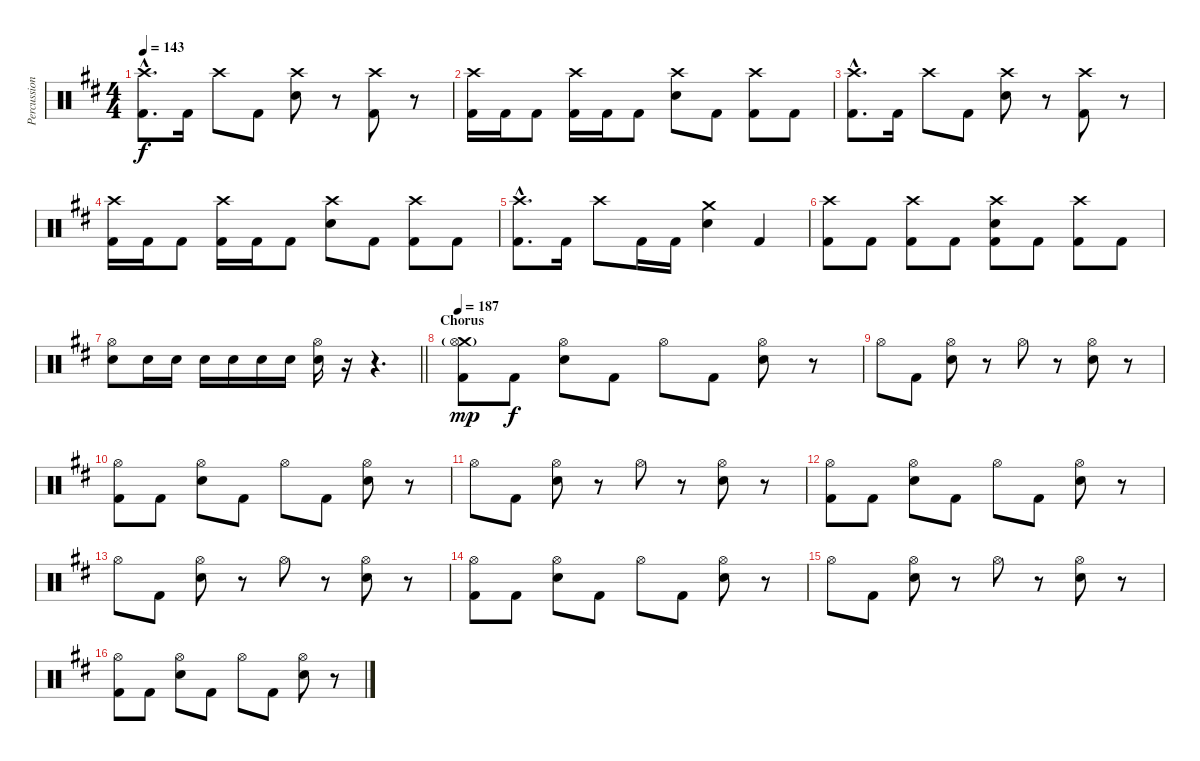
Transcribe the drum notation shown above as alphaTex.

\track ("Percussion" "Percussion") {instrument percussion}
\staff {score}
\articulation defaults
\ts (4 4)
\tempo 143
\clef neutral
\ks d
("Crash high (hit)"{hac} "Kick (hit) 2"{hac}).8{d dy f} "Kick (hit) 2".16 "Crash high (hit)".8 "Kick (hit) 2".8 ("Crash high (hit)" "Snare (hit) 2").8 r.8 ("Crash high (hit)" "Kick (hit) 2").8 r.8 |
("Crash high (hit)" "Kick (hit) 2").16 "Kick (hit) 2".16 "Kick (hit) 2".8 ("Crash high (hit)" "Kick (hit) 2").16 "Kick (hit) 2".16 "Kick (hit) 2".8 ("Crash high (hit)" "Snare (hit) 2").8 "Kick (hit) 2".8 ("Crash high (hit)" "Kick (hit) 2").8 "Kick (hit) 2".8 |
("Crash high (hit)"{hac} "Kick (hit) 2"{hac}).8{d} "Kick (hit) 2".16 "Crash high (hit)".8 "Kick (hit) 2".8 ("Crash high (hit)" "Snare (hit) 2").8 r.8 ("Crash high (hit)" "Kick (hit) 2").8 r.8 |
("Crash high (hit)" "Kick (hit) 2").16 "Kick (hit) 2".16 "Kick (hit) 2".8 ("Crash high (hit)" "Kick (hit) 2").16 "Kick (hit) 2".16 "Kick (hit) 2".8 ("Crash high (hit)" "Snare (hit) 2").8 "Kick (hit) 2".8 ("Crash high (hit)" "Kick (hit) 2").8 "Kick (hit) 2".8 |
("Crash high (hit)"{hac} "Kick (hit) 2"{hac}).8{d} "Kick (hit) 2".16 "Crash high (hit)".8 "Kick (hit) 2".16 "Kick (hit) 2".16 ("Crash medium (hit)" "Snare (hit) 2").4 "Kick (hit) 2".4 |
("Crash high (hit)" "Kick (hit) 2").8 "Kick (hit) 2".8 ("Crash high (hit)" "Kick (hit) 2").8 "Kick (hit) 2".8 ("Crash high (hit)" "Snare (hit) 2" "Kick (hit) 2").8 "Kick (hit) 2".8 ("Crash high (hit)" "Kick (hit) 2").8 "Kick (hit) 2".8 |
\barLineRight lightlight
("Hi-Hat (open)" "Snare (hit) 2").8 "Snare (hit) 2".16 "Snare (hit) 2".16 "Snare (hit) 2".16 "Snare (hit) 2".16 "Snare (hit) 2".16 "Snare (hit) 2".16 ("Hi-Hat (open)" "Snare (hit) 2").16 r.16 r.4{d} |
\section ("" "Chorus")
\tempo 187
("Crash medium (hit)"{g} "Hi-Hat (open)" "Kick (hit) 2").8{dy mp} "Kick (hit) 2".8{dy f} ("Hi-Hat (open)" "Snare (hit) 2").8 "Kick (hit) 2".8 "Hi-Hat (open)".8 "Kick (hit) 2".8 ("Hi-Hat (open)" "Snare (hit) 2").8 r.8 |
"Hi-Hat (open)".8 "Kick (hit) 2".8 ("Hi-Hat (open)" "Snare (hit) 2").8 r.8 "Hi-Hat (open)".8 r.8 ("Hi-Hat (open)" "Snare (hit) 2").8 r.8 |
("Hi-Hat (open)" "Kick (hit) 2").8 "Kick (hit) 2".8 ("Hi-Hat (open)" "Snare (hit) 2").8 "Kick (hit) 2".8 "Hi-Hat (open)".8 "Kick (hit) 2".8 ("Hi-Hat (open)" "Snare (hit) 2").8 r.8 |
"Hi-Hat (open)".8 "Kick (hit) 2".8 ("Hi-Hat (open)" "Snare (hit) 2").8 r.8 "Hi-Hat (open)".8 r.8 ("Hi-Hat (open)" "Snare (hit) 2").8 r.8 |
("Hi-Hat (open)" "Kick (hit) 2").8 "Kick (hit) 2".8 ("Hi-Hat (open)" "Snare (hit) 2").8 "Kick (hit) 2".8 "Hi-Hat (open)".8 "Kick (hit) 2".8 ("Hi-Hat (open)" "Snare (hit) 2").8 r.8 |
"Hi-Hat (open)".8 "Kick (hit) 2".8 ("Hi-Hat (open)" "Snare (hit) 2").8 r.8 "Hi-Hat (open)".8 r.8 ("Hi-Hat (open)" "Snare (hit) 2").8 r.8 |
("Hi-Hat (open)" "Kick (hit) 2").8 "Kick (hit) 2".8 ("Hi-Hat (open)" "Snare (hit) 2").8 "Kick (hit) 2".8 "Hi-Hat (open)".8 "Kick (hit) 2".8 ("Hi-Hat (open)" "Snare (hit) 2").8 r.8 |
"Hi-Hat (open)".8 "Kick (hit) 2".8 ("Hi-Hat (open)" "Snare (hit) 2").8 r.8 "Hi-Hat (open)".8 r.8 ("Hi-Hat (open)" "Snare (hit) 2").8 r.8 |
("Hi-Hat (open)" "Kick (hit) 2").8 "Kick (hit) 2".8 ("Hi-Hat (open)" "Snare (hit) 2").8 "Kick (hit) 2".8 "Hi-Hat (open)".8 "Kick (hit) 2".8 ("Hi-Hat (open)" "Snare (hit) 2").8 r.8
